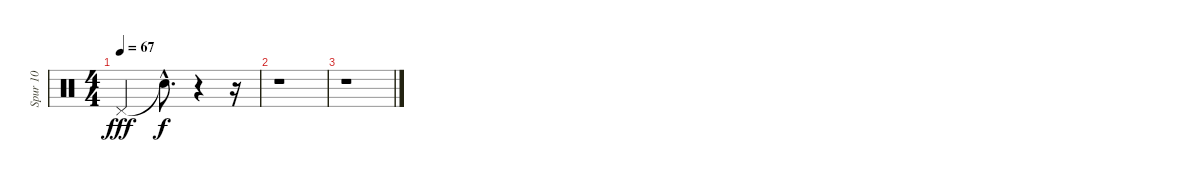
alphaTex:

\track ("Spur 10" "Spur 10") {instrument percussion}
\staff {score}
\articulation defaults
\ts (4 4)
\tempo 67
\clef neutral
\ks c "Pedal Hi-Hat (hit)".2{dy fff} "Snare (hit)"{hac t}.8{d dy f}
r.4 r.16 |
r.1 |
r.1
